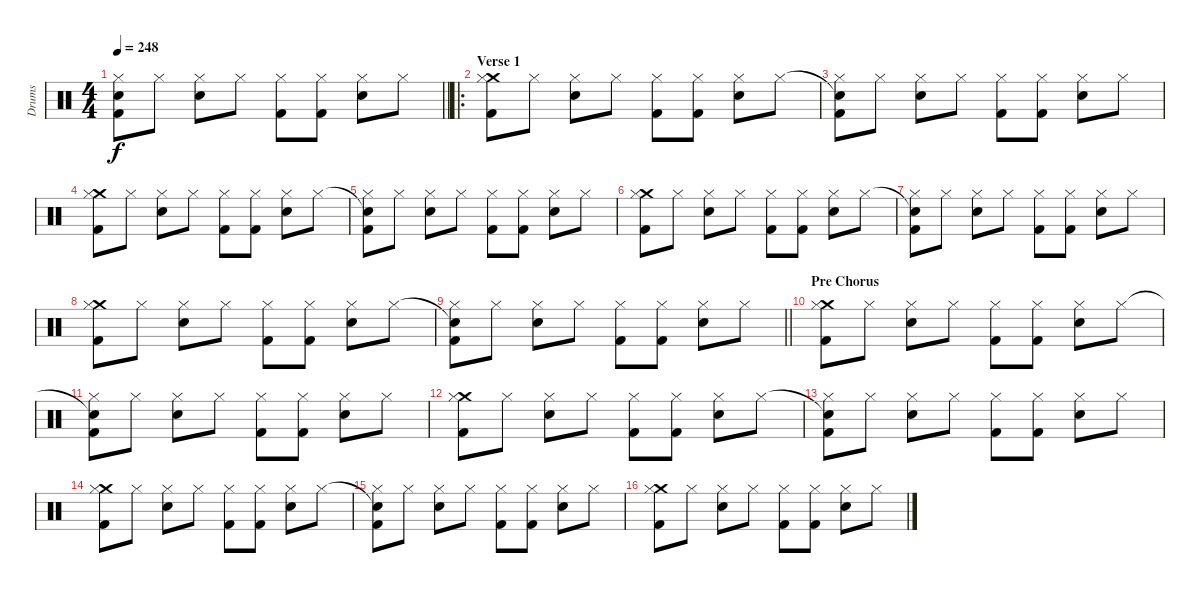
\track ("Drums" "Drums") {instrument percussion}
\staff {score}
\articulation defaults
\ts (4 4)
\tempo 248
\clef neutral
\barLineRight lightlight
\ks c
("Snare (hit)"{t} "Hi-Hat (closed)" "Kick (hit) 2").8{dy f} "Hi-Hat (closed)".8 ("Hi-Hat (closed)" "Electric Snare (hit)").8 "Hi-Hat (closed)".8 ("Hi-Hat (closed)" "Kick (hit) 2").8 ("Hi-Hat (closed)" "Kick (hit) 2").8 ("Hi-Hat (closed)" "Electric Snare (hit)").8 "Hi-Hat (closed)".8 |
\ro
\section ("" "Verse 1")
("Crash medium (hit)" "Hi-Hat (closed)" "Kick (hit) 2").8 "Hi-Hat (closed)".8 ("Hi-Hat (closed)" "Electric Snare (hit)").8 "Hi-Hat (closed)".8 ("Hi-Hat (closed)" "Kick (hit) 2").8 ("Hi-Hat (closed)" "Kick (hit) 2").8 ("Hi-Hat (closed)" "Electric Snare (hit)").8 "Hi-Hat (closed)".8 |
("Snare (hit)"{t} "Hi-Hat (closed)" "Kick (hit) 2").8 "Hi-Hat (closed)".8 ("Hi-Hat (closed)" "Electric Snare (hit)").8 "Hi-Hat (closed)".8 ("Hi-Hat (closed)" "Kick (hit) 2").8 ("Hi-Hat (closed)" "Kick (hit) 2").8 ("Hi-Hat (closed)" "Electric Snare (hit)").8 "Hi-Hat (closed)".8 |
("Crash medium (hit)" "Hi-Hat (closed)" "Kick (hit) 2").8 "Hi-Hat (closed)".8 ("Hi-Hat (closed)" "Electric Snare (hit)").8 "Hi-Hat (closed)".8 ("Hi-Hat (closed)" "Kick (hit) 2").8 ("Hi-Hat (closed)" "Kick (hit) 2").8 ("Hi-Hat (closed)" "Electric Snare (hit)").8 "Hi-Hat (closed)".8 |
("Snare (hit)"{t} "Hi-Hat (closed)" "Kick (hit) 2").8 "Hi-Hat (closed)".8 ("Hi-Hat (closed)" "Electric Snare (hit)").8 "Hi-Hat (closed)".8 ("Hi-Hat (closed)" "Kick (hit) 2").8 ("Hi-Hat (closed)" "Kick (hit) 2").8 ("Hi-Hat (closed)" "Electric Snare (hit)").8 "Hi-Hat (closed)".8 |
("Crash medium (hit)" "Hi-Hat (closed)" "Kick (hit) 2").8 "Hi-Hat (closed)".8 ("Hi-Hat (closed)" "Electric Snare (hit)").8 "Hi-Hat (closed)".8 ("Hi-Hat (closed)" "Kick (hit) 2").8 ("Hi-Hat (closed)" "Kick (hit) 2").8 ("Hi-Hat (closed)" "Electric Snare (hit)").8 "Hi-Hat (closed)".8 |
("Snare (hit)"{t} "Hi-Hat (closed)" "Kick (hit) 2").8 "Hi-Hat (closed)".8 ("Hi-Hat (closed)" "Electric Snare (hit)").8 "Hi-Hat (closed)".8 ("Hi-Hat (closed)" "Kick (hit) 2").8 ("Hi-Hat (closed)" "Kick (hit) 2").8 ("Hi-Hat (closed)" "Electric Snare (hit)").8 "Hi-Hat (closed)".8 |
("Crash medium (hit)" "Hi-Hat (closed)" "Kick (hit) 2").8 "Hi-Hat (closed)".8 ("Hi-Hat (closed)" "Electric Snare (hit)").8 "Hi-Hat (closed)".8 ("Hi-Hat (closed)" "Kick (hit) 2").8 ("Hi-Hat (closed)" "Kick (hit) 2").8 ("Hi-Hat (closed)" "Electric Snare (hit)").8 "Hi-Hat (closed)".8 |
\barLineRight lightlight
("Snare (hit)"{t} "Hi-Hat (closed)" "Kick (hit) 2").8 "Hi-Hat (closed)".8 ("Hi-Hat (closed)" "Electric Snare (hit)").8 "Hi-Hat (closed)".8 ("Hi-Hat (closed)" "Kick (hit) 2").8 ("Hi-Hat (closed)" "Kick (hit) 2").8 ("Hi-Hat (closed)" "Electric Snare (hit)").8 "Hi-Hat (closed)".8 |
\section ("" "Pre Chorus")
("Crash medium (hit)" "Hi-Hat (closed)" "Kick (hit) 2").8 "Hi-Hat (closed)".8 ("Hi-Hat (closed)" "Electric Snare (hit)").8 "Hi-Hat (closed)".8 ("Hi-Hat (closed)" "Kick (hit) 2").8 ("Hi-Hat (closed)" "Kick (hit) 2").8 ("Hi-Hat (closed)" "Electric Snare (hit)").8 "Hi-Hat (closed)".8 |
("Snare (hit)"{t} "Hi-Hat (closed)" "Kick (hit) 2").8 "Hi-Hat (closed)".8 ("Hi-Hat (closed)" "Electric Snare (hit)").8 "Hi-Hat (closed)".8 ("Hi-Hat (closed)" "Kick (hit) 2").8 ("Hi-Hat (closed)" "Kick (hit) 2").8 ("Hi-Hat (closed)" "Electric Snare (hit)").8 "Hi-Hat (closed)".8 |
("Crash medium (hit)" "Hi-Hat (closed)" "Kick (hit) 2").8 "Hi-Hat (closed)".8 ("Hi-Hat (closed)" "Electric Snare (hit)").8 "Hi-Hat (closed)".8 ("Hi-Hat (closed)" "Kick (hit) 2").8 ("Hi-Hat (closed)" "Kick (hit) 2").8 ("Hi-Hat (closed)" "Electric Snare (hit)").8 "Hi-Hat (closed)".8 |
("Snare (hit)"{t} "Hi-Hat (closed)" "Kick (hit) 2").8 "Hi-Hat (closed)".8 ("Hi-Hat (closed)" "Electric Snare (hit)").8 "Hi-Hat (closed)".8 ("Hi-Hat (closed)" "Kick (hit) 2").8 ("Hi-Hat (closed)" "Kick (hit) 2").8 ("Hi-Hat (closed)" "Electric Snare (hit)").8 "Hi-Hat (closed)".8 |
("Crash medium (hit)" "Hi-Hat (closed)" "Kick (hit) 2").8 "Hi-Hat (closed)".8 ("Hi-Hat (closed)" "Electric Snare (hit)").8 "Hi-Hat (closed)".8 ("Hi-Hat (closed)" "Kick (hit) 2").8 ("Hi-Hat (closed)" "Kick (hit) 2").8 ("Hi-Hat (closed)" "Electric Snare (hit)").8 "Hi-Hat (closed)".8 |
("Snare (hit)"{t} "Hi-Hat (closed)" "Kick (hit) 2").8 "Hi-Hat (closed)".8 ("Hi-Hat (closed)" "Electric Snare (hit)").8 "Hi-Hat (closed)".8 ("Hi-Hat (closed)" "Kick (hit) 2").8 ("Hi-Hat (closed)" "Kick (hit) 2").8 ("Hi-Hat (closed)" "Electric Snare (hit)").8 "Hi-Hat (closed)".8 |
("Crash medium (hit)" "Hi-Hat (closed)" "Kick (hit) 2").8 "Hi-Hat (closed)".8 ("Hi-Hat (closed)" "Electric Snare (hit)").8 "Hi-Hat (closed)".8 ("Hi-Hat (closed)" "Kick (hit) 2").8 ("Hi-Hat (closed)" "Kick (hit) 2").8 ("Hi-Hat (closed)" "Electric Snare (hit)").8 "Hi-Hat (closed)".8
